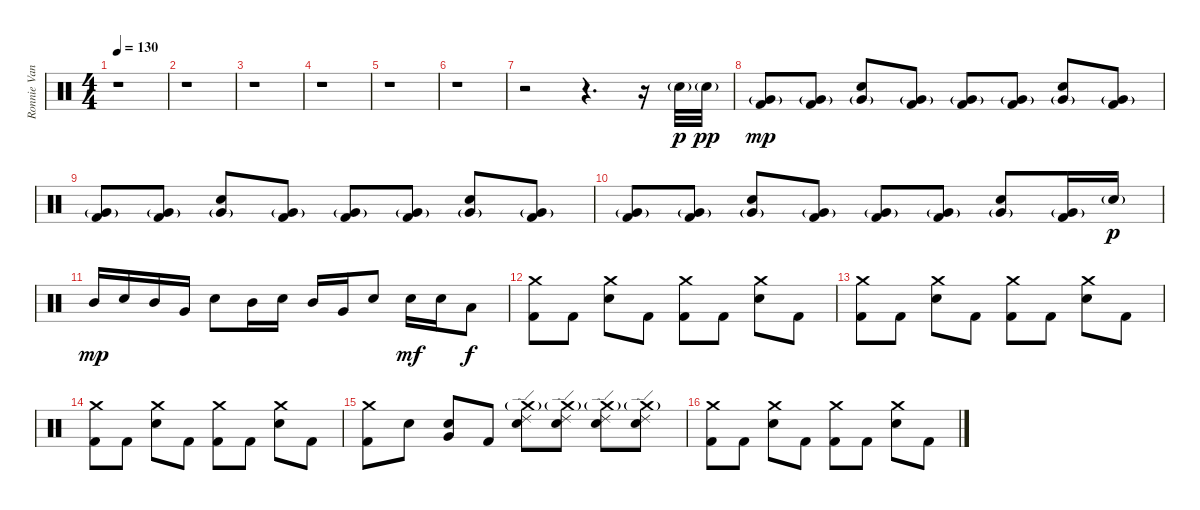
\track ("Ronnie Vannucci Jr." "Ronnie Van") {instrument percussion}
\staff {score}
\articulation defaults
\ts (4 4)
\tempo 130
\clef neutral
\ks c
r.1{dy f} |
r.1 |
r.1 |
r.1 |
r.1 |
r.1 |
r.2 r.4{d} r.16 "Electric Snare (hit)"{g}.32{dy p} "Electric Snare (hit)"{g}.32{dy pp} |
("Very Low Tom (hit)"{g} "Kick (hit) 2").8{dy mp} ("Very Low Tom (hit)"{g} "Kick (hit) 2").8 ("Very Low Tom (hit)"{g} "Electric Snare (hit)").8 ("Very Low Tom (hit)"{g} "Kick (hit) 2").8 ("Very Low Tom (hit)"{g} "Kick (hit) 2").8 ("Very Low Tom (hit)"{g} "Kick (hit) 2").8 ("Very Low Tom (hit)"{g} "Electric Snare (hit)").8 ("Very Low Tom (hit)"{g} "Kick (hit) 2").8 |
("Very Low Tom (hit)"{g} "Kick (hit) 2").8 ("Very Low Tom (hit)"{g} "Kick (hit) 2").8 ("Very Low Tom (hit)"{g} "Electric Snare (hit)").8 ("Very Low Tom (hit)"{g} "Kick (hit) 2").8 ("Very Low Tom (hit)"{g} "Kick (hit) 2").8 ("Very Low Tom (hit)"{g} "Kick (hit) 2").8 ("Very Low Tom (hit)"{g} "Electric Snare (hit)").8 ("Very Low Tom (hit)"{g} "Kick (hit) 2").8 |
("Very Low Tom (hit)"{g} "Kick (hit) 2").8 ("Very Low Tom (hit)"{g} "Kick (hit) 2").8 ("Very Low Tom (hit)"{g} "Electric Snare (hit)").8 ("Very Low Tom (hit)"{g} "Kick (hit) 2").8 ("Very Low Tom (hit)"{g} "Kick (hit) 2").8 ("Very Low Tom (hit)"{g} "Kick (hit) 2").8 ("Very Low Tom (hit)"{g} "Electric Snare (hit)").8 ("Very Low Tom (hit)"{g} "Kick (hit) 2").16 "Electric Snare (hit)"{g}.16{dy p} |
"Mid Tom (hit)".16{dy mp} "Electric Snare (hit)".16 "Mid Tom (hit)".16 "Very Low Tom (hit)".16 "Electric Snare (hit)".8 "Mid Tom (hit)".16 "Electric Snare (hit)".16 "Mid Tom (hit)".16 "Very Low Tom (hit)".16 "Electric Snare (hit)".8 "Electric Snare (hit)".16{dy mf} "Electric Snare (hit)".16 "Low Floor Tom (hit)".8{dy f} |
("Crash medium (hit)" "Kick (hit) 2").8 "Kick (hit) 2".8 ("Crash medium (hit)" "Electric Snare (hit)").8 "Kick (hit) 2".8 ("Crash medium (hit)" "Kick (hit) 2").8 "Kick (hit) 2".8 ("Crash medium (hit)" "Electric Snare (hit)").8 "Kick (hit) 2".8 |
("Crash medium (hit)" "Kick (hit) 2").8 "Kick (hit) 2".8 ("Crash medium (hit)" "Electric Snare (hit)").8 "Kick (hit) 2".8 ("Crash medium (hit)" "Kick (hit) 2").8 "Kick (hit) 2".8 ("Crash medium (hit)" "Electric Snare (hit)").8 "Kick (hit) 2".8 |
("Crash medium (hit)" "Kick (hit) 2").8 "Kick (hit) 2".8 ("Crash medium (hit)" "Electric Snare (hit)").8 "Kick (hit) 2".8 ("Crash medium (hit)" "Kick (hit) 2").8 "Kick (hit) 2".8 ("Crash medium (hit)" "Electric Snare (hit)").8 "Kick (hit) 2".8 |
("Crash medium (hit)" "Kick (hit) 2").8 "Electric Snare (hit)".8 ("Very Low Tom (hit)" "Electric Snare (hit)").8 "Kick (hit) 2".8 ("Crash medium (hit)"{g} "Ride (edge) 2" "Electric Snare (hit)").8 ("Crash medium (hit)"{g} "Ride (edge) 2" "Electric Snare (hit)").8 ("Crash medium (hit)"{g} "Ride (edge) 2" "Electric Snare (hit)").8 ("Crash medium (hit)"{g} "Ride (edge) 2" "Electric Snare (hit)").8 |
("Crash medium (hit)" "Kick (hit) 2").8 "Kick (hit) 2".8 ("Crash medium (hit)" "Electric Snare (hit)").8 "Kick (hit) 2".8 ("Crash medium (hit)" "Kick (hit) 2").8 "Kick (hit) 2".8 ("Crash medium (hit)" "Electric Snare (hit)").8 "Kick (hit) 2".8
